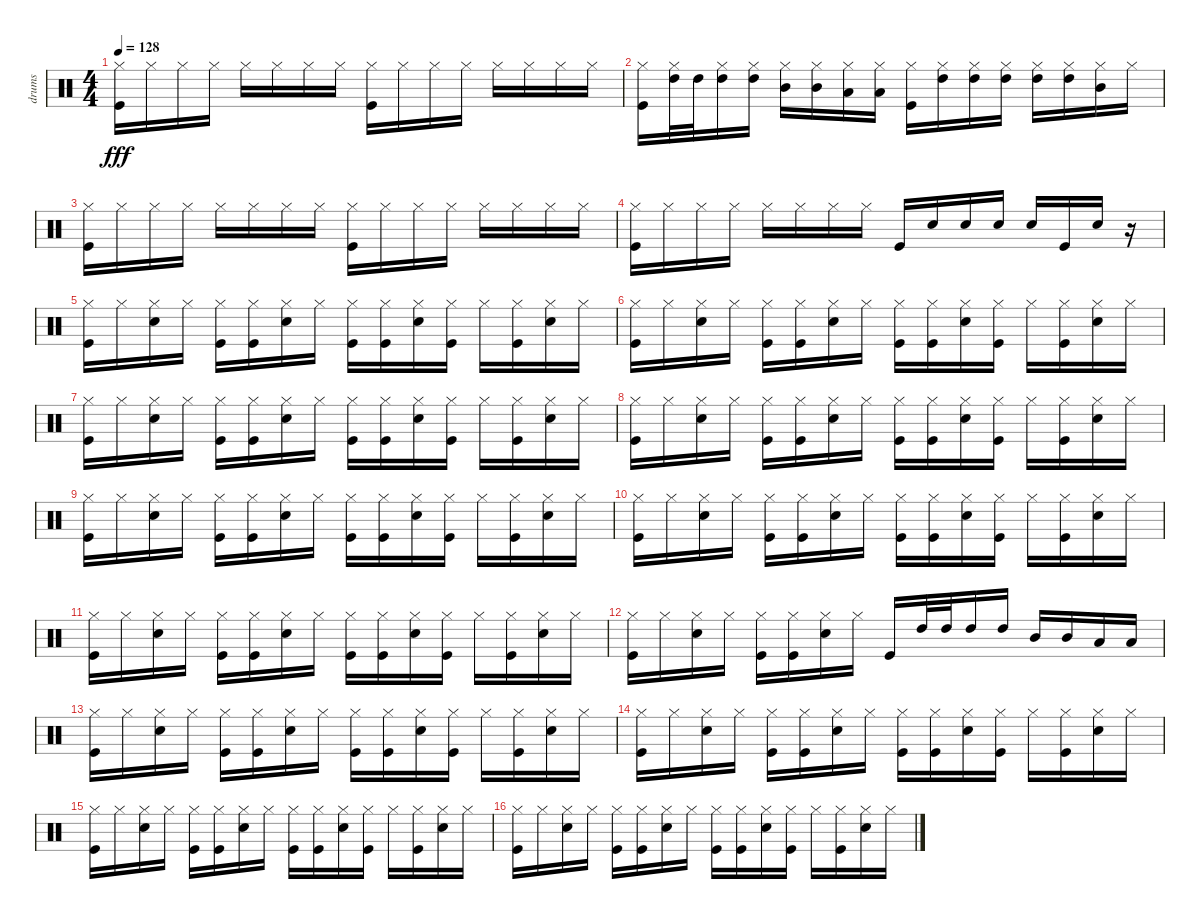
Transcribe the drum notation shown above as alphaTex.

\track ("drums" "drums") {instrument percussion}
\staff {score}
\articulation defaults
\ts (4 4)
\tempo 128
\clef neutral
\ks c
("Kick (hit)" "Hi-Hat (closed)").16{dy fff} "Hi-Hat (closed)".16 "Hi-Hat (closed)".16 "Hi-Hat (closed)".16 "Hi-Hat (closed)".16 "Hi-Hat (closed)".16 "Hi-Hat (closed)".16 "Hi-Hat (closed)".16 ("Kick (hit)" "Hi-Hat (closed)").16 "Hi-Hat (closed)".16 "Hi-Hat (closed)".16 "Hi-Hat (closed)".16 "Hi-Hat (closed)".16 "Hi-Hat (closed)".16 "Hi-Hat (closed)".16 "Hi-Hat (closed)".16 |
("Kick (hit)" "Hi-Hat (closed)").16 ("Hi-Hat (closed)" "High Tom (hit)").32 "High Tom (hit)".32 ("Hi-Hat (closed)" "High Tom (hit)").16 ("Hi-Hat (closed)" "High Tom (hit)").16 ("Hi-Hat (closed)" "Mid Tom (hit)").16 ("Hi-Hat (closed)" "Mid Tom (hit)").16 ("Hi-Hat (closed)" "Low Tom (hit)").16 ("Hi-Hat (closed)" "Low Tom (hit)").16 ("Kick (hit)" "Hi-Hat (closed)").16 ("Hi-Hat (closed)" "High Tom (hit)").16 ("Hi-Hat (closed)" "High Tom (hit)").16 ("Hi-Hat (closed)" "High Tom (hit)").16 ("Hi-Hat (closed)" "High Tom (hit)").16 ("Hi-Hat (closed)" "High Tom (hit)").16 ("Hi-Hat (closed)" "Mid Tom (hit)").16 "Hi-Hat (closed)".16 |
("Kick (hit)" "Hi-Hat (closed)").16 "Hi-Hat (closed)".16 "Hi-Hat (closed)".16 "Hi-Hat (closed)".16 "Hi-Hat (closed)".16 "Hi-Hat (closed)".16 "Hi-Hat (closed)".16 "Hi-Hat (closed)".16 ("Kick (hit)" "Hi-Hat (closed)").16 "Hi-Hat (closed)".16 "Hi-Hat (closed)".16 "Hi-Hat (closed)".16 "Hi-Hat (closed)".16 "Hi-Hat (closed)".16 "Hi-Hat (closed)".16 "Hi-Hat (closed)".16 |
("Kick (hit)" "Hi-Hat (closed)").16 "Hi-Hat (closed)".16 "Hi-Hat (closed)".16 "Hi-Hat (closed)".16 "Hi-Hat (closed)".16 "Hi-Hat (closed)".16 "Hi-Hat (closed)".16 "Hi-Hat (closed)".16 "Kick (hit)".16 "Snare (hit) 2".16 "Snare (hit) 2".16 "Snare (hit) 2".16 "Snare (hit) 2".16 "Kick (hit)".16 "Snare (hit) 2".16 r.16 |
("Hi-Hat (closed)" "Kick (hit)").16 "Hi-Hat (closed)".16 ("Hi-Hat (closed)" "Snare (hit) 2").16 "Hi-Hat (closed)".16 ("Kick (hit)" "Hi-Hat (closed)").16 ("Kick (hit)" "Hi-Hat (closed)").16 ("Snare (hit) 2" "Hi-Hat (closed)").16 "Hi-Hat (closed)".16 ("Kick (hit)" "Hi-Hat (closed)").16 ("Kick (hit)" "Hi-Hat (closed)").16 ("Snare (hit) 2" "Hi-Hat (closed)").16 ("Hi-Hat (closed)" "Kick (hit)").16 "Hi-Hat (closed)".16 ("Kick (hit)" "Hi-Hat (closed)").16 ("Snare (hit) 2" "Hi-Hat (closed)").16 "Hi-Hat (closed)".16 |
("Hi-Hat (closed)" "Kick (hit)").16 "Hi-Hat (closed)".16 ("Hi-Hat (closed)" "Snare (hit) 2").16 "Hi-Hat (closed)".16 ("Kick (hit)" "Hi-Hat (closed)").16 ("Kick (hit)" "Hi-Hat (closed)").16 ("Snare (hit) 2" "Hi-Hat (closed)").16 "Hi-Hat (closed)".16 ("Kick (hit)" "Hi-Hat (closed)").16 ("Kick (hit)" "Hi-Hat (closed)").16 ("Snare (hit) 2" "Hi-Hat (closed)").16 ("Hi-Hat (closed)" "Kick (hit)").16 "Hi-Hat (closed)".16 ("Kick (hit)" "Hi-Hat (closed)").16 ("Snare (hit) 2" "Hi-Hat (closed)").16 "Hi-Hat (closed)".16 |
("Hi-Hat (closed)" "Kick (hit)").16 "Hi-Hat (closed)".16 ("Hi-Hat (closed)" "Snare (hit) 2").16 "Hi-Hat (closed)".16 ("Kick (hit)" "Hi-Hat (closed)").16 ("Kick (hit)" "Hi-Hat (closed)").16 ("Snare (hit) 2" "Hi-Hat (closed)").16 "Hi-Hat (closed)".16 ("Kick (hit)" "Hi-Hat (closed)").16 ("Kick (hit)" "Hi-Hat (closed)").16 ("Snare (hit) 2" "Hi-Hat (closed)").16 ("Hi-Hat (closed)" "Kick (hit)").16 "Hi-Hat (closed)".16 ("Kick (hit)" "Hi-Hat (closed)").16 ("Snare (hit) 2" "Hi-Hat (closed)").16 "Hi-Hat (closed)".16 |
("Hi-Hat (closed)" "Kick (hit)").16 "Hi-Hat (closed)".16 ("Hi-Hat (closed)" "Snare (hit) 2").16 "Hi-Hat (closed)".16 ("Kick (hit)" "Hi-Hat (closed)").16 ("Kick (hit)" "Hi-Hat (closed)").16 ("Snare (hit) 2" "Hi-Hat (closed)").16 "Hi-Hat (closed)".16 ("Kick (hit)" "Hi-Hat (closed)").16 ("Kick (hit)" "Hi-Hat (closed)").16 ("Snare (hit) 2" "Hi-Hat (closed)").16 ("Hi-Hat (closed)" "Kick (hit)").16 "Hi-Hat (closed)".16 ("Kick (hit)" "Hi-Hat (closed)").16 ("Snare (hit) 2" "Hi-Hat (closed)").16 "Hi-Hat (closed)".16 |
("Hi-Hat (closed)" "Kick (hit)").16 "Hi-Hat (closed)".16 ("Hi-Hat (closed)" "Snare (hit) 2").16 "Hi-Hat (closed)".16 ("Kick (hit)" "Hi-Hat (closed)").16 ("Kick (hit)" "Hi-Hat (closed)").16 ("Snare (hit) 2" "Hi-Hat (closed)").16 "Hi-Hat (closed)".16 ("Kick (hit)" "Hi-Hat (closed)").16 ("Kick (hit)" "Hi-Hat (closed)").16 ("Snare (hit) 2" "Hi-Hat (closed)").16 ("Hi-Hat (closed)" "Kick (hit)").16 "Hi-Hat (closed)".16 ("Kick (hit)" "Hi-Hat (closed)").16 ("Snare (hit) 2" "Hi-Hat (closed)").16 "Hi-Hat (closed)".16 |
("Hi-Hat (closed)" "Kick (hit)").16 "Hi-Hat (closed)".16 ("Hi-Hat (closed)" "Snare (hit) 2").16 "Hi-Hat (closed)".16 ("Kick (hit)" "Hi-Hat (closed)").16 ("Kick (hit)" "Hi-Hat (closed)").16 ("Snare (hit) 2" "Hi-Hat (closed)").16 "Hi-Hat (closed)".16 ("Kick (hit)" "Hi-Hat (closed)").16 ("Kick (hit)" "Hi-Hat (closed)").16 ("Snare (hit) 2" "Hi-Hat (closed)").16 ("Hi-Hat (closed)" "Kick (hit)").16 "Hi-Hat (closed)".16 ("Kick (hit)" "Hi-Hat (closed)").16 ("Snare (hit) 2" "Hi-Hat (closed)").16 "Hi-Hat (closed)".16 |
("Hi-Hat (closed)" "Kick (hit)").16 "Hi-Hat (closed)".16 ("Hi-Hat (closed)" "Snare (hit) 2").16 "Hi-Hat (closed)".16 ("Kick (hit)" "Hi-Hat (closed)").16 ("Kick (hit)" "Hi-Hat (closed)").16 ("Snare (hit) 2" "Hi-Hat (closed)").16 "Hi-Hat (closed)".16 ("Kick (hit)" "Hi-Hat (closed)").16 ("Kick (hit)" "Hi-Hat (closed)").16 ("Snare (hit) 2" "Hi-Hat (closed)").16 ("Hi-Hat (closed)" "Kick (hit)").16 "Hi-Hat (closed)".16 ("Kick (hit)" "Hi-Hat (closed)").16 ("Snare (hit) 2" "Hi-Hat (closed)").16 "Hi-Hat (closed)".16 |
("Hi-Hat (closed)" "Kick (hit)").16 "Hi-Hat (closed)".16 ("Hi-Hat (closed)" "Snare (hit) 2").16 "Hi-Hat (closed)".16 ("Kick (hit)" "Hi-Hat (closed)").16 ("Kick (hit)" "Hi-Hat (closed)").16 ("Snare (hit) 2" "Hi-Hat (closed)").16 "Hi-Hat (closed)".16 "Kick (hit)".16 "High Tom (hit)".32 "High Tom (hit)".32 "High Tom (hit)".16 "High Tom (hit)".16 "Mid Tom (hit)".16 "Mid Tom (hit)".16 "Low Tom (hit)".16 "Low Tom (hit)".16 |
("Hi-Hat (closed)" "Kick (hit)").16 "Hi-Hat (closed)".16 ("Hi-Hat (closed)" "Snare (hit) 2").16 "Hi-Hat (closed)".16 ("Kick (hit)" "Hi-Hat (closed)").16 ("Kick (hit)" "Hi-Hat (closed)").16 ("Snare (hit) 2" "Hi-Hat (closed)").16 "Hi-Hat (closed)".16 ("Kick (hit)" "Hi-Hat (closed)").16 ("Kick (hit)" "Hi-Hat (closed)").16 ("Snare (hit) 2" "Hi-Hat (closed)").16 ("Hi-Hat (closed)" "Kick (hit)").16 "Hi-Hat (closed)".16 ("Kick (hit)" "Hi-Hat (closed)").16 ("Snare (hit) 2" "Hi-Hat (closed)").16 "Hi-Hat (closed)".16 |
("Hi-Hat (closed)" "Kick (hit)").16 "Hi-Hat (closed)".16 ("Hi-Hat (closed)" "Snare (hit) 2").16 "Hi-Hat (closed)".16 ("Kick (hit)" "Hi-Hat (closed)").16 ("Kick (hit)" "Hi-Hat (closed)").16 ("Snare (hit) 2" "Hi-Hat (closed)").16 "Hi-Hat (closed)".16 ("Kick (hit)" "Hi-Hat (closed)").16 ("Kick (hit)" "Hi-Hat (closed)").16 ("Snare (hit) 2" "Hi-Hat (closed)").16 ("Hi-Hat (closed)" "Kick (hit)").16 "Hi-Hat (closed)".16 ("Kick (hit)" "Hi-Hat (closed)").16 ("Snare (hit) 2" "Hi-Hat (closed)").16 "Hi-Hat (closed)".16 |
("Hi-Hat (closed)" "Kick (hit)").16 "Hi-Hat (closed)".16 ("Hi-Hat (closed)" "Snare (hit) 2").16 "Hi-Hat (closed)".16 ("Kick (hit)" "Hi-Hat (closed)").16 ("Kick (hit)" "Hi-Hat (closed)").16 ("Snare (hit) 2" "Hi-Hat (closed)").16 "Hi-Hat (closed)".16 ("Kick (hit)" "Hi-Hat (closed)").16 ("Kick (hit)" "Hi-Hat (closed)").16 ("Snare (hit) 2" "Hi-Hat (closed)").16 ("Hi-Hat (closed)" "Kick (hit)").16 "Hi-Hat (closed)".16 ("Kick (hit)" "Hi-Hat (closed)").16 ("Snare (hit) 2" "Hi-Hat (closed)").16 "Hi-Hat (closed)".16 |
("Hi-Hat (closed)" "Kick (hit)").16 "Hi-Hat (closed)".16 ("Hi-Hat (closed)" "Snare (hit) 2").16 "Hi-Hat (closed)".16 ("Kick (hit)" "Hi-Hat (closed)").16 ("Kick (hit)" "Hi-Hat (closed)").16 ("Snare (hit) 2" "Hi-Hat (closed)").16 "Hi-Hat (closed)".16 ("Kick (hit)" "Hi-Hat (closed)").16 ("Kick (hit)" "Hi-Hat (closed)").16 ("Snare (hit) 2" "Hi-Hat (closed)").16 ("Hi-Hat (closed)" "Kick (hit)").16 "Hi-Hat (closed)".16 ("Kick (hit)" "Hi-Hat (closed)").16 ("Snare (hit) 2" "Hi-Hat (closed)").16 "Hi-Hat (closed)".16
